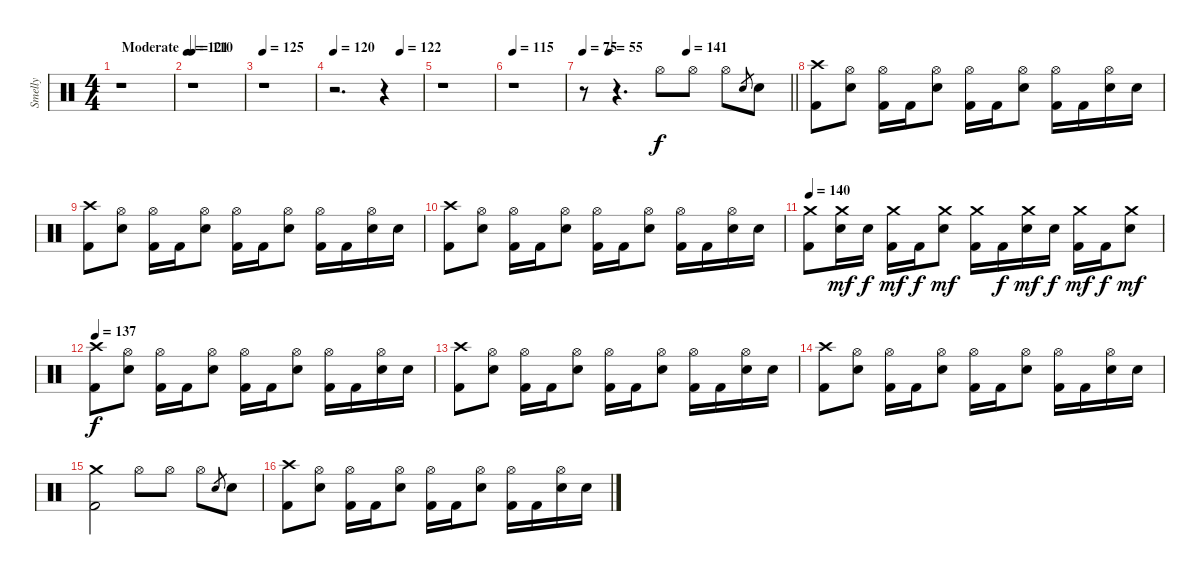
\track ("Smelly" "Smelly") {instrument percussion}
\staff {score}
\articulation defaults
\ts (4 4)
\tempo (121 "Moderate")
\clef neutral
\ks c
r.1{dy f} |
\tempo 110
r.1 |
\tempo 125
r.1 |
\tempo 120
\tempo (122 0.75)
r.2{d} r.4 |
r.1 |
\tempo 115
r.1 |
\tempo 75
\tempo (55 0.125)
\tempo (141 0.5)
\barLineRight lightlight
r.8 r.4{d} "Hi-Hat (open)".8 "Hi-Hat (open)".8 "Hi-Hat (open)".8 "Electric Snare (hit)".8{gr} "Electric Snare (hit)".8 |
\section ("" "")
("Crash high (hit)" "Kick (hit) 2").8 ("Hi-Hat (open)" "Electric Snare (hit)").8 ("Hi-Hat (open)" "Kick (hit) 2").16 "Kick (hit) 2".16 ("Hi-Hat (open)" "Electric Snare (hit)").8 ("Hi-Hat (open)" "Kick (hit) 2").16 "Kick (hit) 2".16 ("Hi-Hat (open)" "Electric Snare (hit)").8 ("Hi-Hat (open)" "Kick (hit) 2").16 "Kick (hit) 2".16 ("Hi-Hat (open)" "Electric Snare (hit)").16 "Electric Snare (hit)".16 |
("Crash high (hit)" "Kick (hit) 2").8 ("Hi-Hat (open)" "Electric Snare (hit)").8 ("Hi-Hat (open)" "Kick (hit) 2").16 "Kick (hit) 2".16 ("Hi-Hat (open)" "Electric Snare (hit)").8 ("Hi-Hat (open)" "Kick (hit) 2").16 "Kick (hit) 2".16 ("Hi-Hat (open)" "Electric Snare (hit)").8 ("Hi-Hat (open)" "Kick (hit) 2").16 "Kick (hit) 2".16 ("Hi-Hat (open)" "Electric Snare (hit)").16 "Electric Snare (hit)".16 |
("Crash high (hit)" "Kick (hit) 2").8 ("Hi-Hat (open)" "Electric Snare (hit)").8 ("Hi-Hat (open)" "Kick (hit) 2").16 "Kick (hit) 2".16 ("Hi-Hat (open)" "Electric Snare (hit)").8 ("Hi-Hat (open)" "Kick (hit) 2").16 "Kick (hit) 2".16 ("Hi-Hat (open)" "Electric Snare (hit)").8 ("Hi-Hat (open)" "Kick (hit) 2").16 "Kick (hit) 2".16 ("Hi-Hat (open)" "Electric Snare (hit)").16 "Electric Snare (hit)".16 |
\tempo 140
("Crash medium (hit)" "Kick (hit) 2").8 ("Crash medium (hit)" "Electric Snare (hit)").16{dy mf} "Electric Snare (hit)".16{dy f} ("Crash medium (hit)" "Kick (hit) 2").16{dy mf} "Kick (hit) 2".16{dy f} ("Crash medium (hit)" "Electric Snare (hit)").8{dy mf} ("Crash medium (hit)" "Kick (hit) 2").16 "Kick (hit) 2".16{dy f} ("Crash medium (hit)" "Electric Snare (hit)").16{dy mf} "Electric Snare (hit)".16{dy f} ("Crash medium (hit)" "Kick (hit) 2").16{dy mf} "Kick (hit) 2".16{dy f} ("Crash medium (hit)" "Electric Snare (hit)").8{dy mf} |
\tempo 137
("Crash high (hit)" "Kick (hit) 2").8{dy f} ("Hi-Hat (open)" "Electric Snare (hit)").8 ("Hi-Hat (open)" "Kick (hit) 2").16 "Kick (hit) 2".16 ("Hi-Hat (open)" "Electric Snare (hit)").8 ("Hi-Hat (open)" "Kick (hit) 2").16 "Kick (hit) 2".16 ("Hi-Hat (open)" "Electric Snare (hit)").8 ("Hi-Hat (open)" "Kick (hit) 2").16 "Kick (hit) 2".16 ("Hi-Hat (open)" "Electric Snare (hit)").16 "Electric Snare (hit)".16 |
("Crash high (hit)" "Kick (hit) 2").8 ("Hi-Hat (open)" "Electric Snare (hit)").8 ("Hi-Hat (open)" "Kick (hit) 2").16 "Kick (hit) 2".16 ("Hi-Hat (open)" "Electric Snare (hit)").8 ("Hi-Hat (open)" "Kick (hit) 2").16 "Kick (hit) 2".16 ("Hi-Hat (open)" "Electric Snare (hit)").8 ("Hi-Hat (open)" "Kick (hit) 2").16 "Kick (hit) 2".16 ("Hi-Hat (open)" "Electric Snare (hit)").16 "Electric Snare (hit)".16 |
("Crash high (hit)" "Kick (hit) 2").8 ("Hi-Hat (open)" "Electric Snare (hit)").8 ("Hi-Hat (open)" "Kick (hit) 2").16 "Kick (hit) 2".16 ("Hi-Hat (open)" "Electric Snare (hit)").8 ("Hi-Hat (open)" "Kick (hit) 2").16 "Kick (hit) 2".16 ("Hi-Hat (open)" "Electric Snare (hit)").8 ("Hi-Hat (open)" "Kick (hit) 2").16 "Kick (hit) 2".16 ("Hi-Hat (open)" "Electric Snare (hit)").16 "Electric Snare (hit)".16 |
("Crash medium (hit)" "Kick (hit) 2").2 "Hi-Hat (open)".8 "Hi-Hat (open)".8 "Hi-Hat (open)".8 "Electric Snare (hit)".8{gr} "Electric Snare (hit)".8 |
("Crash high (hit)" "Kick (hit) 2").8 ("Hi-Hat (open)" "Electric Snare (hit)").8 ("Hi-Hat (open)" "Kick (hit) 2").16 "Kick (hit) 2".16 ("Hi-Hat (open)" "Electric Snare (hit)").8 ("Hi-Hat (open)" "Kick (hit) 2").16 "Kick (hit) 2".16 ("Hi-Hat (open)" "Electric Snare (hit)").8 ("Hi-Hat (open)" "Kick (hit) 2").16 "Kick (hit) 2".16 ("Hi-Hat (open)" "Electric Snare (hit)").16 "Electric Snare (hit)".16
